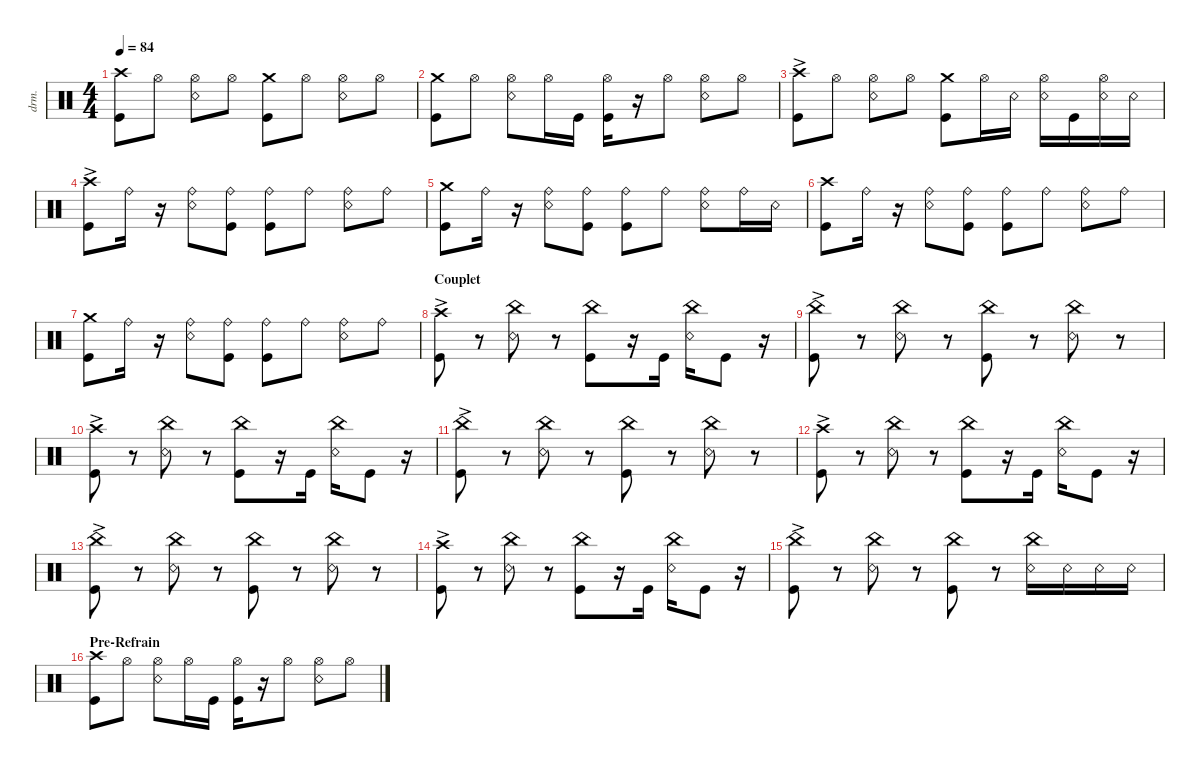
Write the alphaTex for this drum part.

\defaultSystemsLayout 4
\hideDynamics
\bracketExtendMode nobrackets
\otherSystemsTrackNameOrientation horizontal
\track ("Drumkit" "drm.") {instrument percussion}
\staff {score}
\articulation defaults
\ts (4 4)
\tempo 84
\clef neutral
\ks aminor
("Kick (hit)" "Crash high (hit)").8{dy f beam Down} "Hi-Hat (open)".8{beam Down} ("Snare (rim shot)" "Hi-Hat (open)").8{beam Down} "Hi-Hat (open)".8{beam Down} ("Crash medium (hit)" "Kick (hit)").8{beam Down} "Hi-Hat (open)".8{beam Down} ("Hi-Hat (open)" "Snare (rim shot)").8{beam Down} "Hi-Hat (open)".8{beam Down} |
("Kick (hit)" "Crash medium (hit)").8{beam Down} "Hi-Hat (open)".8{beam Down} ("Hi-Hat (open)" "Snare (rim shot)").8{beam Down} "Hi-Hat (open)".16{beam Down} "Kick (hit)".16{beam Down} ("Hi-Hat (open)" "Kick (hit)").16{beam Down} r.16{beam Down} "Hi-Hat (open)".8{beam Down} ("Hi-Hat (open)" "Snare (rim shot)").8{beam Down} "Hi-Hat (open)".8{beam Down} |
("Kick (hit)" "Crash high (hit)"{ac}).8{beam Down} "Hi-Hat (open)".8{beam Down} ("Snare (rim shot)" "Hi-Hat (open)").8{beam Down} "Hi-Hat (open)".8{beam Down} ("Crash medium (hit)" "Kick (hit)").8{beam Down} "Hi-Hat (open)".16{beam Down} "Snare (rim shot)".16{beam Down} ("Hi-Hat (open)" "Snare (rim shot)").16{beam Down} "Kick (hit)".16{beam Down} ("Snare (rim shot)" "Hi-Hat (open)").16{beam Down} "Snare (rim shot)".16{beam Down} |
("Kick (hit)" "Crash high (hit)"{ac}).8{beam Down} "Ride (bell)".16{beam Down} r.16{beam Down} ("Ride (bell)" "Snare (rim shot)").8{beam Down} ("Ride (bell)" "Kick (hit)").8{beam Down} ("Ride (bell)" "Kick (hit)").8{beam Down} "Ride (bell)".8{beam Down} ("Ride (bell)" "Snare (rim shot)").8{beam Down} "Ride (bell)".8{beam Down} |
("Kick (hit)" "Crash medium (hit)").8{beam Down} "Ride (bell)".16{beam Down} r.16{beam Down} ("Ride (bell)" "Snare (rim shot)").8{beam Down} ("Ride (bell)" "Kick (hit)").8{beam Down} ("Ride (bell)" "Kick (hit)").8{beam Down} "Ride (bell)".8{beam Down} ("Ride (bell)" "Snare (rim shot)").8{beam Down} "Ride (bell)".16{beam Down} "Snare (rim shot)".16{beam Down} |
("Kick (hit)" "Crash high (hit)").8{beam Down} "Ride (bell)".16{beam Down} r.16{beam Down} ("Ride (bell)" "Snare (rim shot)").8{beam Down} ("Ride (bell)" "Kick (hit)").8{beam Down} ("Ride (bell)" "Kick (hit)").8{beam Down} "Ride (bell)".8{beam Down} ("Ride (bell)" "Snare (rim shot)").8{beam Down} "Ride (bell)".8{beam Down} |
("Kick (hit)" "Crash medium (hit)").8{beam Down} "Ride (bell)".16{beam Down} r.16{beam Down} ("Ride (bell)" "Snare (rim shot)").8{beam Down} ("Ride (bell)" "Kick (hit)").8{beam Down} ("Ride (bell)" "Kick (hit)").8{beam Down} "Ride (bell)".8{beam Down} ("Ride (bell)" "Snare (rim shot)").8{beam Down} "Ride (bell)".8{beam Down} |
\section ("" "Couplet")
("Kick (hit)" "Crash high (hit)"{ac}).8{beam Down} r.8{beam Down} ("Snare (rim shot)" "China (hit)").8{beam Down} r.8{beam Down} ("Kick (hit)" "China (hit)").8{beam Down} r.16{beam Down} "Kick (hit)".16{beam Down} ("Snare (rim shot)" "China (hit)").16{beam Down} "Kick (hit)".8{beam Down} r.16{beam Down} |
("Kick (hit)" "China (hit)"{ac}).8{beam Down} r.8{beam Down} ("Snare (rim shot)" "China (hit)").8{beam Down} r.8{beam Down} ("Kick (hit)" "China (hit)").8{beam Down} r.8{beam Down} ("China (hit)" "Snare (rim shot)").8{beam Down} r.8{beam Down} |
("Kick (hit)" "Crash high (hit)"{ac}).8{beam Down} r.8{beam Down} ("Snare (rim shot)" "China (hit)").8{beam Down} r.8{beam Down} ("Kick (hit)" "China (hit)").8{beam Down} r.16{beam Down} "Kick (hit)".16{beam Down} ("Snare (rim shot)" "China (hit)").16{beam Down} "Kick (hit)".8{beam Down} r.16{beam Down} |
("Kick (hit)" "China (hit)"{ac}).8{beam Down} r.8{beam Down} ("Snare (rim shot)" "China (hit)").8{beam Down} r.8{beam Down} ("Kick (hit)" "China (hit)").8{beam Down} r.8{beam Down} ("China (hit)" "Snare (rim shot)").8{beam Down} r.8{beam Down} |
("Kick (hit)" "Crash high (hit)"{ac}).8{beam Down} r.8{beam Down} ("Snare (rim shot)" "China (hit)").8{beam Down} r.8{beam Down} ("Kick (hit)" "China (hit)").8{beam Down} r.16{beam Down} "Kick (hit)".16{beam Down} ("Snare (rim shot)" "China (hit)").16{beam Down} "Kick (hit)".8{beam Down} r.16{beam Down} |
("Kick (hit)" "China (hit)"{ac}).8{beam Down} r.8{beam Down} ("Snare (rim shot)" "China (hit)").8{beam Down} r.8{beam Down} ("Kick (hit)" "China (hit)").8{beam Down} r.8{beam Down} ("China (hit)" "Snare (rim shot)").8{beam Down} r.8{beam Down} |
("Kick (hit)" "Crash high (hit)"{ac}).8{beam Down} r.8{beam Down} ("Snare (rim shot)" "China (hit)").8{beam Down} r.8{beam Down} ("Kick (hit)" "China (hit)").8{beam Down} r.16{beam Down} "Kick (hit)".16{beam Down} ("Snare (rim shot)" "China (hit)").16{beam Down} "Kick (hit)".8{beam Down} r.16{beam Down} |
("Kick (hit)" "China (hit)"{ac}).8{beam Down} r.8{beam Down} ("Snare (rim shot)" "China (hit)").8{beam Down} r.8{beam Down} ("Kick (hit)" "China (hit)").8{beam Down} r.8{beam Down} ("China (hit)" "Snare (rim shot)").16{beam Down} "Snare (rim shot)".16{beam Down} "Snare (rim shot)".16{beam Down} "Snare (rim shot)".16{beam Down} |
\section ("" "Pre-Refrain")
("Kick (hit)" "Crash high (hit)").8{beam Down} "Hi-Hat (open)".8{beam Down} ("Hi-Hat (open)" "Snare (rim shot)").8{beam Down} "Hi-Hat (open)".16{beam Down} "Kick (hit)".16{beam Down} ("Hi-Hat (open)" "Kick (hit)").16{beam Down} r.16{beam Down} "Hi-Hat (open)".8{beam Down} ("Hi-Hat (open)" "Snare (rim shot)").8{beam Down} "Hi-Hat (open)".8{beam Down}
